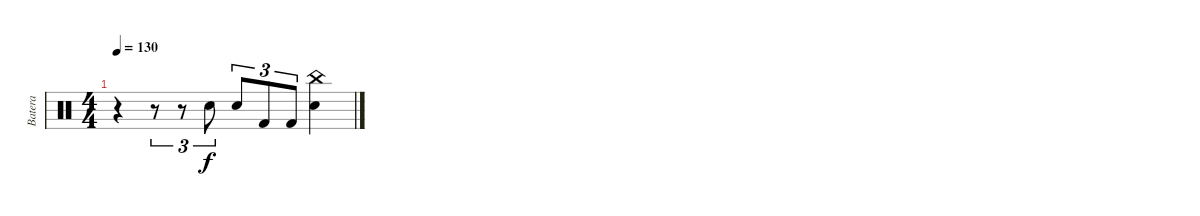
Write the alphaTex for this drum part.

\track ("Batera" "Batera") {instrument percussion}
\staff {score}
\articulation defaults
\ts (4 4)
\tempo 130
\clef neutral
\ks c
r.4{dy f} r.8{tu (3 2)} r.8{tu (3 2)} "Snare (hit) 2".8{tu (3 2)} "Snare (hit) 2".8{tu (3 2)} "Kick (hit) 2".8{tu (3 2)} "Kick (hit) 2".8{tu (3 2)} ("Snare (hit) 2" "China (hit)").4
